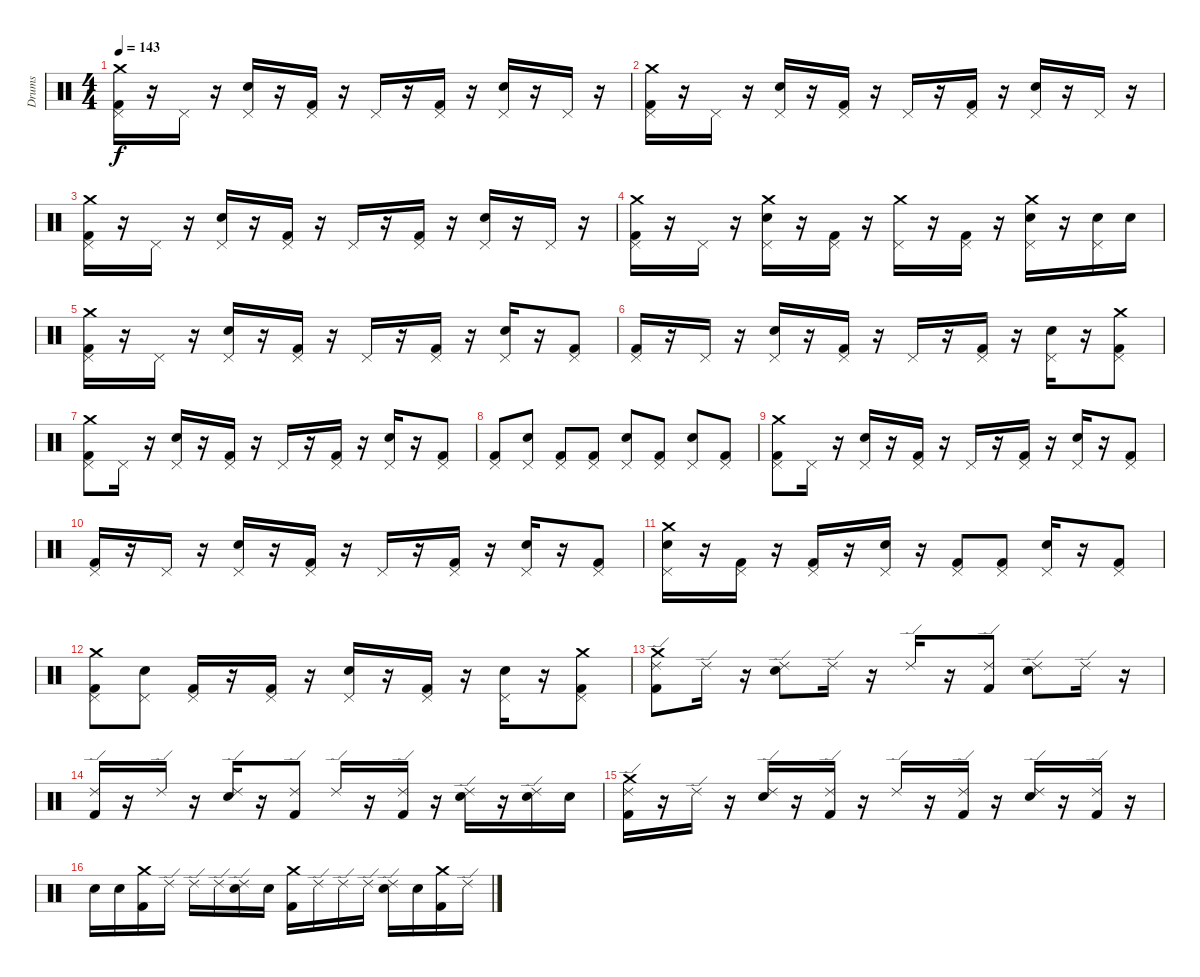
\track ("Drums" "Drums") {instrument percussion}
\staff {score}
\articulation defaults
\ts (4 4)
\tempo 143
\clef neutral
\ks c
("Crash medium (hit)" "Kick (hit) 2" "Pedal Hi-Hat (hit)").16{dy f} r.16 "Pedal Hi-Hat (hit)".16 r.16 ("Electric Snare (hit)" "Pedal Hi-Hat (hit)").16 r.16 ("Kick (hit) 2" "Pedal Hi-Hat (hit)").16 r.16 "Pedal Hi-Hat (hit)".16 r.16 ("Pedal Hi-Hat (hit)" "Kick (hit) 2").16 r.16 ("Pedal Hi-Hat (hit)" "Electric Snare (hit)").16 r.16 "Pedal Hi-Hat (hit)".16 r.16 |
("Pedal Hi-Hat (hit)" "Crash medium (hit)" "Kick (hit) 2").16 r.16 "Pedal Hi-Hat (hit)".16 r.16 ("Electric Snare (hit)" "Pedal Hi-Hat (hit)").16 r.16 ("Kick (hit) 2" "Pedal Hi-Hat (hit)").16 r.16 "Pedal Hi-Hat (hit)".16 r.16 ("Pedal Hi-Hat (hit)" "Kick (hit) 2").16 r.16 ("Pedal Hi-Hat (hit)" "Electric Snare (hit)").16 r.16 "Pedal Hi-Hat (hit)".16 r.16 |
("Pedal Hi-Hat (hit)" "Kick (hit) 2" "Crash medium (hit)").16 r.16 "Pedal Hi-Hat (hit)".16 r.16 ("Pedal Hi-Hat (hit)" "Electric Snare (hit)").16 r.16 ("Pedal Hi-Hat (hit)" "Kick (hit) 2").16 r.16 "Pedal Hi-Hat (hit)".16 r.16 ("Kick (hit) 2" "Pedal Hi-Hat (hit)").16 r.16 ("Electric Snare (hit)" "Pedal Hi-Hat (hit)").16 r.16 "Pedal Hi-Hat (hit)".16 r.16 |
("Kick (hit) 2" "Crash medium (hit)" "Pedal Hi-Hat (hit)").16 r.16 "Pedal Hi-Hat (hit)".16 r.16 ("Electric Snare (hit)" "Crash medium (hit)" "Pedal Hi-Hat (hit)").16 r.16 ("Kick (hit) 2" "Pedal Hi-Hat (hit)").16 r.16 ("Pedal Hi-Hat (hit)" "Crash medium (hit)").16 r.16 ("Kick (hit) 2" "Pedal Hi-Hat (hit)").16 r.16 ("Pedal Hi-Hat (hit)" "Crash medium (hit)" "Electric Snare (hit)").16 r.16 ("Electric Snare (hit)" "Pedal Hi-Hat (hit)").16 "Electric Snare (hit)".16 |
("Pedal Hi-Hat (hit)" "Crash medium (hit)" "Kick (hit) 2").16 r.16 "Pedal Hi-Hat (hit)".16 r.16 ("Electric Snare (hit)" "Pedal Hi-Hat (hit)").16 r.16 ("Kick (hit) 2" "Pedal Hi-Hat (hit)").16 r.16 "Pedal Hi-Hat (hit)".16 r.16 ("Pedal Hi-Hat (hit)" "Kick (hit) 2").16 r.16 ("Pedal Hi-Hat (hit)" "Electric Snare (hit)").16 r.16 ("Kick (hit) 2" "Pedal Hi-Hat (hit)").8 |
("Pedal Hi-Hat (hit)" "Kick (hit) 2").16 r.16 "Pedal Hi-Hat (hit)".16 r.16 ("Electric Snare (hit)" "Pedal Hi-Hat (hit)").16 r.16 ("Kick (hit) 2" "Pedal Hi-Hat (hit)").16 r.16 "Pedal Hi-Hat (hit)".16 r.16 ("Pedal Hi-Hat (hit)" "Kick (hit) 2").16 r.16 ("Pedal Hi-Hat (hit)" "Electric Snare (hit)").16 r.16 ("Crash medium (hit)" "Kick (hit) 2" "Pedal Hi-Hat (hit)").8 |
("Crash medium (hit)" "Pedal Hi-Hat (hit)" "Kick (hit) 2").8 "Pedal Hi-Hat (hit)".16 r.16 ("Electric Snare (hit)" "Pedal Hi-Hat (hit)").16 r.16 ("Kick (hit) 2" "Pedal Hi-Hat (hit)").16 r.16 "Pedal Hi-Hat (hit)".16 r.16 ("Pedal Hi-Hat (hit)" "Kick (hit) 2").16 r.16 ("Pedal Hi-Hat (hit)" "Electric Snare (hit)").16 r.16 ("Kick (hit) 2" "Pedal Hi-Hat (hit)").8 |
("Pedal Hi-Hat (hit)" "Kick (hit) 2").8 ("Electric Snare (hit)" "Pedal Hi-Hat (hit)").8 ("Pedal Hi-Hat (hit)" "Kick (hit) 2").8 ("Pedal Hi-Hat (hit)" "Kick (hit) 2").8 ("Pedal Hi-Hat (hit)" "Electric Snare (hit)").8 ("Pedal Hi-Hat (hit)" "Kick (hit) 2").8 ("Pedal Hi-Hat (hit)" "Electric Snare (hit)").8 ("Pedal Hi-Hat (hit)" "Kick (hit) 2").8 |
("Crash medium (hit)" "Pedal Hi-Hat (hit)" "Kick (hit) 2").8 "Pedal Hi-Hat (hit)".16 r.16 ("Electric Snare (hit)" "Pedal Hi-Hat (hit)").16 r.16 ("Kick (hit) 2" "Pedal Hi-Hat (hit)").16 r.16 "Pedal Hi-Hat (hit)".16 r.16 ("Pedal Hi-Hat (hit)" "Kick (hit) 2").16 r.16 ("Pedal Hi-Hat (hit)" "Electric Snare (hit)").16 r.16 ("Kick (hit) 2" "Pedal Hi-Hat (hit)").8 |
("Pedal Hi-Hat (hit)" "Kick (hit) 2").16 r.16 "Pedal Hi-Hat (hit)".16 r.16 ("Electric Snare (hit)" "Pedal Hi-Hat (hit)").16 r.16 ("Kick (hit) 2" "Pedal Hi-Hat (hit)").16 r.16 "Pedal Hi-Hat (hit)".16 r.16 ("Pedal Hi-Hat (hit)" "Kick (hit) 2").16 r.16 ("Pedal Hi-Hat (hit)" "Electric Snare (hit)").16 r.16 ("Kick (hit) 2" "Pedal Hi-Hat (hit)").8 |
("Crash medium (hit)" "Pedal Hi-Hat (hit)" "Electric Snare (hit)").16 r.16 ("Kick (hit) 2" "Pedal Hi-Hat (hit)").16 r.16 ("Kick (hit) 2" "Pedal Hi-Hat (hit)").16 r.16 ("Electric Snare (hit)" "Pedal Hi-Hat (hit)").16 r.16 ("Kick (hit) 2" "Pedal Hi-Hat (hit)").8 ("Pedal Hi-Hat (hit)" "Kick (hit) 2").8 ("Pedal Hi-Hat (hit)" "Electric Snare (hit)").16 r.16 ("Kick (hit) 2" "Pedal Hi-Hat (hit)").8 |
("Crash medium (hit)" "Pedal Hi-Hat (hit)" "Kick (hit) 2").8 ("Electric Snare (hit)" "Pedal Hi-Hat (hit)").8 ("Kick (hit) 2" "Pedal Hi-Hat (hit)").16 r.16 ("Kick (hit) 2" "Pedal Hi-Hat (hit)").16 r.16 ("Electric Snare (hit)" "Pedal Hi-Hat (hit)").16 r.16 ("Pedal Hi-Hat (hit)" "Kick (hit) 2").16 r.16 ("Pedal Hi-Hat (hit)" "Electric Snare (hit)").16 r.16 ("Crash medium (hit)" "Kick (hit) 2" "Pedal Hi-Hat (hit)").8 |
("Crash medium (hit)" "Kick (hit) 2" "Ride (edge) 2").8{volume 12 balance 8} "Ride (edge) 2".16 r.16 ("Electric Snare (hit)" "Ride (edge) 2").8 "Ride (edge) 2".16 r.16 "Ride (edge) 2".16 r.16 ("Kick (hit) 2" "Ride (edge) 2").8 ("Electric Snare (hit)" "Ride (edge) 2").8 "Ride (edge) 2".16 r.16 |
("Kick (hit) 2" "Ride (edge) 2").16 r.16 "Ride (edge) 2".16 r.16 ("Electric Snare (hit)" "Ride (edge) 2").16 r.16 ("Kick (hit) 2" "Ride (edge) 2").8 "Ride (edge) 2".16 r.16 ("Kick (hit) 2" "Ride (edge) 2").16 r.16 ("Electric Snare (hit)" "Ride (edge) 2").16 r.16 ("Electric Snare (hit)" "Ride (edge) 2").16 "Electric Snare (hit)".16 |
("Crash medium (hit)" "Kick (hit) 2" "Ride (edge) 2").16 r.16 "Ride (edge) 2".16 r.16 ("Electric Snare (hit)" "Ride (edge) 2").16 r.16 ("Ride (edge) 2" "Kick (hit) 2").16 r.16 "Ride (edge) 2".16 r.16 ("Kick (hit) 2" "Ride (edge) 2").16 r.16 ("Electric Snare (hit)" "Ride (edge) 2").16 r.16 ("Kick (hit) 2" "Ride (edge) 2").16 r.16 |
"Electric Snare (hit)".16 "Electric Snare (hit)".16 ("Kick (hit) 2" "Crash medium (hit)").16 "Ride (edge) 2".16 "Ride (edge) 2".16 "Ride (edge) 2".16 ("Ride (edge) 2" "Electric Snare (hit)").16 "Electric Snare (hit)".16 ("Kick (hit) 2" "Crash medium (hit)").16 "Ride (edge) 2".16 "Ride (edge) 2".16 "Ride (edge) 2".16 ("Ride (edge) 2" "Electric Snare (hit)").16 "Electric Snare (hit)".16 ("Kick (hit) 2" "Crash medium (hit)").16 "Ride (edge) 2".16
